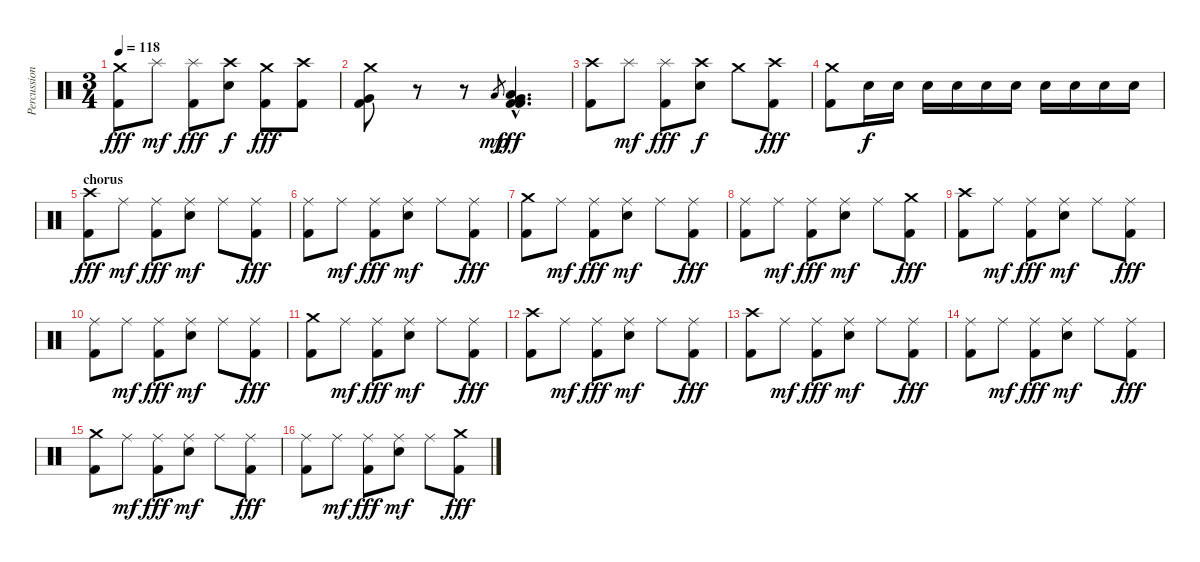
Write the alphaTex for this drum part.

\track ("Percussion" "Percussion") {instrument percussion}
\staff {score}
\articulation defaults
\ts (3 4)
\tempo 118
\clef neutral
\ks c
("Crash medium (hit)" "Kick (hit) 2").8{dy fff} "Splash (hit)".8{dy mf} ("Splash (hit)" "Kick (hit) 2").8{dy fff} ("Crash high (hit)" "Electric Snare (hit)").8{dy f} ("Crash medium (hit)" "Kick (hit) 2").8{dy fff} ("Crash high (hit)" "Kick (hit) 2").8 |
("Crash medium (hit)" "Very Low Tom (hit)" "Kick (hit) 2").8 r.8 r.8 "Low Tom (hit)".8{gr dy mp} ("Kick (hit) 2"{hac} "Very Low Tom (hit)"{hac} "Low Tom (hit)"{hac} "Kick (hit) 2"{hac}).4{d dy fff} |
("Crash high (hit)" "Kick (hit) 2").8 "Splash (hit)".8{dy mf} ("Splash (hit)" "Kick (hit) 2").8{dy fff} ("Crash high (hit)" "Electric Snare (hit)").8{dy f} "Crash medium (hit)".8 ("Crash high (hit)" "Kick (hit) 2").8{dy fff} |
("Crash medium (hit)" "Kick (hit) 2").8 "Electric Snare (hit)".16{dy f} "Electric Snare (hit)".16 "Electric Snare (hit)".16 "Electric Snare (hit)".16 "Electric Snare (hit)".16 "Electric Snare (hit)".16 "Electric Snare (hit)".16 "Electric Snare (hit)".16 "Electric Snare (hit)".16 "Electric Snare (hit)".16 |
\section ("" "chorus")
("Crash high (hit)" "Kick (hit) 2").8{dy fff} "Ride (middle)".8{dy mf} ("Ride (middle)" "Kick (hit) 2").8{dy fff} ("Ride (middle)" "Electric Snare (hit)").8{dy mf} "Ride (middle)".8 ("Ride (middle)" "Kick (hit) 2").8{dy fff} |
("Ride (middle)" "Kick (hit) 2").8 "Ride (middle)".8{dy mf} ("Ride (middle)" "Kick (hit) 2").8{dy fff} ("Ride (middle)" "Electric Snare (hit)").8{dy mf} "Ride (middle)".8 ("Ride (middle)" "Kick (hit) 2").8{dy fff} |
("Crash medium (hit)" "Kick (hit) 2").8 "Ride (middle)".8{dy mf} ("Ride (middle)" "Kick (hit) 2").8{dy fff} ("Ride (middle)" "Electric Snare (hit)").8{dy mf} "Ride (middle)".8 ("Ride (middle)" "Kick (hit) 2").8{dy fff} |
("Ride (middle)" "Kick (hit) 2").8 "Ride (middle)".8{dy mf} ("Ride (middle)" "Kick (hit) 2").8{dy fff} ("Ride (middle)" "Electric Snare (hit)").8{dy mf} "Ride (middle)".8 ("Crash medium (hit)" "Kick (hit) 2").8{dy fff} |
("Crash high (hit)" "Kick (hit) 2").8 "Ride (middle)".8{dy mf} ("Ride (middle)" "Kick (hit) 2").8{dy fff} ("Ride (middle)" "Electric Snare (hit)").8{dy mf} "Ride (middle)".8 ("Ride (middle)" "Kick (hit) 2").8{dy fff} |
("Ride (middle)" "Kick (hit) 2").8 "Ride (middle)".8{dy mf} ("Ride (middle)" "Kick (hit) 2").8{dy fff} ("Ride (middle)" "Electric Snare (hit)").8{dy mf} "Ride (middle)".8 ("Ride (middle)" "Kick (hit) 2").8{dy fff} |
("Crash medium (hit)" "Kick (hit) 2").8 "Ride (middle)".8{dy mf} ("Ride (middle)" "Kick (hit) 2").8{dy fff} ("Ride (middle)" "Electric Snare (hit)").8{dy mf} "Ride (middle)".8 ("Ride (middle)" "Kick (hit) 2").8{dy fff} |
("Crash high (hit)" "Kick (hit) 2").8 "Ride (middle)".8{dy mf} ("Ride (middle)" "Kick (hit) 2").8{dy fff} ("Ride (middle)" "Electric Snare (hit)").8{dy mf} "Ride (middle)".8 ("Ride (middle)" "Kick (hit) 2").8{dy fff} |
\section ("" "")
("Crash high (hit)" "Kick (hit) 2").8 "Ride (middle)".8{dy mf} ("Ride (middle)" "Kick (hit) 2").8{dy fff} ("Ride (middle)" "Electric Snare (hit)").8{dy mf} "Ride (middle)".8 ("Ride (middle)" "Kick (hit) 2").8{dy fff} |
("Ride (middle)" "Kick (hit) 2").8 "Ride (middle)".8{dy mf} ("Ride (middle)" "Kick (hit) 2").8{dy fff} ("Ride (middle)" "Electric Snare (hit)").8{dy mf} "Ride (middle)".8 ("Ride (middle)" "Kick (hit) 2").8{dy fff} |
("Crash medium (hit)" "Kick (hit) 2").8 "Ride (middle)".8{dy mf} ("Ride (middle)" "Kick (hit) 2").8{dy fff} ("Ride (middle)" "Electric Snare (hit)").8{dy mf} "Ride (middle)".8 ("Ride (middle)" "Kick (hit) 2").8{dy fff} |
("Ride (middle)" "Kick (hit) 2").8 "Ride (middle)".8{dy mf} ("Ride (middle)" "Kick (hit) 2").8{dy fff} ("Ride (middle)" "Electric Snare (hit)").8{dy mf} "Ride (middle)".8 ("Crash medium (hit)" "Kick (hit) 2").8{dy fff}
